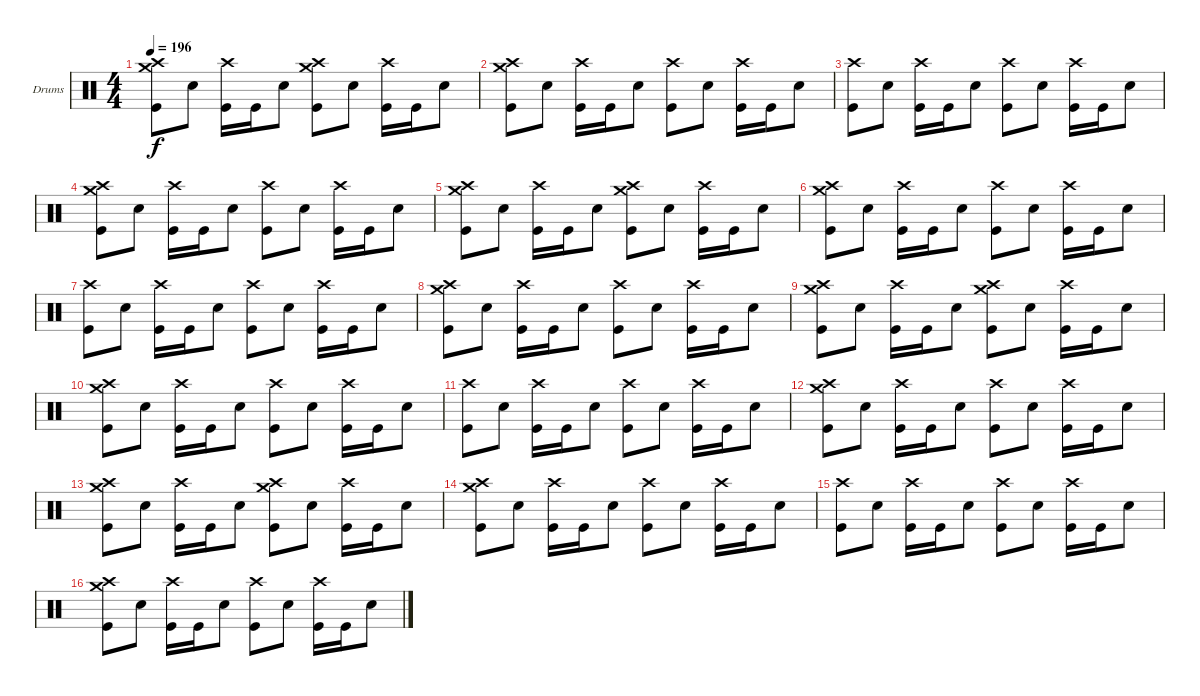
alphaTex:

\defaultSystemsLayout 4
\bracketExtendMode groupsimilarinstruments
\firstSystemTrackNameOrientation horizontal
\otherSystemsTrackNameOrientation horizontal
\track ("Lars Ulrich (Drum)" "Drums") {instrument percussion}
\staff {score}
\articulation defaults
\ts (4 4)
\tempo 196
\clef neutral
\scale
0.333333
\ks c
("Crash high (hit)" "Crash medium (hit)" "Kick (hit)").8{dy f} "Snare (hit) 2".8 ("Crash high (hit)" "Kick (hit)").16 "Kick (hit)".16 "Snare (hit) 2".8 ("Crash high (hit)" "Crash medium (hit)" "Kick (hit)").8 "Snare (hit) 2".8 ("Crash high (hit)" "Kick (hit)").16 "Kick (hit)".16 "Snare (hit) 2".8 |
\scale
0.333333 ("Crash high (hit)" "Crash medium (hit)" "Kick (hit)").8 "Snare (hit) 2".8 ("Crash high (hit)" "Kick (hit)").16 "Kick (hit)".16 "Snare (hit) 2".8 ("Crash high (hit)" "Kick (hit)").8 "Snare (hit) 2".8 ("Crash high (hit)" "Kick (hit)").16 "Kick (hit)".16 "Snare (hit) 2".8 |
\scale
0.333333 ("Crash high (hit)" "Kick (hit)").8 "Snare (hit) 2".8 ("Crash high (hit)" "Kick (hit)").16 "Kick (hit)".16 "Snare (hit) 2".8 ("Crash high (hit)" "Kick (hit)").8 "Snare (hit) 2".8 ("Crash high (hit)" "Kick (hit)").16 "Kick (hit)".16 "Snare (hit) 2".8 |
\scale
0.333333 ("Crash high (hit)" "Crash medium (hit)" "Kick (hit)").8 "Snare (hit) 2".8 ("Crash high (hit)" "Kick (hit)").16 "Kick (hit)".16 "Snare (hit) 2".8 ("Crash high (hit)" "Kick (hit)").8 "Snare (hit) 2".8 ("Crash high (hit)" "Kick (hit)").16 "Kick (hit)".16 "Snare (hit) 2".8 |
\scale
0.333333 ("Crash high (hit)" "Crash medium (hit)" "Kick (hit)").8 "Snare (hit) 2".8 ("Crash high (hit)" "Kick (hit)").16 "Kick (hit)".16 "Snare (hit) 2".8 ("Crash high (hit)" "Crash medium (hit)" "Kick (hit)").8 "Snare (hit) 2".8 ("Crash high (hit)" "Kick (hit)").16 "Kick (hit)".16 "Snare (hit) 2".8 |
\scale
0.333333 ("Crash high (hit)" "Crash medium (hit)" "Kick (hit)").8 "Snare (hit) 2".8 ("Crash high (hit)" "Kick (hit)").16 "Kick (hit)".16 "Snare (hit) 2".8 ("Crash high (hit)" "Kick (hit)").8 "Snare (hit) 2".8 ("Crash high (hit)" "Kick (hit)").16 "Kick (hit)".16 "Snare (hit) 2".8 |
\scale
0.333333 ("Crash high (hit)" "Kick (hit)").8 "Snare (hit) 2".8 ("Crash high (hit)" "Kick (hit)").16 "Kick (hit)".16 "Snare (hit) 2".8 ("Crash high (hit)" "Kick (hit)").8 "Snare (hit) 2".8 ("Crash high (hit)" "Kick (hit)").16 "Kick (hit)".16 "Snare (hit) 2".8 |
\scale
0.333333 ("Crash high (hit)" "Crash medium (hit)" "Kick (hit)").8 "Snare (hit) 2".8 ("Crash high (hit)" "Kick (hit)").16 "Kick (hit)".16 "Snare (hit) 2".8 ("Crash high (hit)" "Kick (hit)").8 "Snare (hit) 2".8 ("Crash high (hit)" "Kick (hit)").16 "Kick (hit)".16 "Snare (hit) 2".8 |
\scale
0.333333 ("Crash high (hit)" "Crash medium (hit)" "Kick (hit)").8 "Snare (hit) 2".8 ("Crash high (hit)" "Kick (hit)").16 "Kick (hit)".16 "Snare (hit) 2".8 ("Crash high (hit)" "Crash medium (hit)" "Kick (hit)").8 "Snare (hit) 2".8 ("Crash high (hit)" "Kick (hit)").16 "Kick (hit)".16 "Snare (hit) 2".8 |
\scale
0.333333 ("Crash high (hit)" "Crash medium (hit)" "Kick (hit)").8 "Snare (hit) 2".8 ("Crash high (hit)" "Kick (hit)").16 "Kick (hit)".16 "Snare (hit) 2".8 ("Crash high (hit)" "Kick (hit)").8 "Snare (hit) 2".8 ("Crash high (hit)" "Kick (hit)").16 "Kick (hit)".16 "Snare (hit) 2".8 |
\scale
0.333333 ("Crash high (hit)" "Kick (hit)").8 "Snare (hit) 2".8 ("Crash high (hit)" "Kick (hit)").16 "Kick (hit)".16 "Snare (hit) 2".8 ("Crash high (hit)" "Kick (hit)").8 "Snare (hit) 2".8 ("Crash high (hit)" "Kick (hit)").16 "Kick (hit)".16 "Snare (hit) 2".8 |
\scale
0.333333 ("Crash high (hit)" "Crash medium (hit)" "Kick (hit)").8 "Snare (hit) 2".8 ("Crash high (hit)" "Kick (hit)").16 "Kick (hit)".16 "Snare (hit) 2".8 ("Crash high (hit)" "Kick (hit)").8 "Snare (hit) 2".8 ("Crash high (hit)" "Kick (hit)").16 "Kick (hit)".16 "Snare (hit) 2".8 |
\scale
0.333333 ("Crash high (hit)" "Crash medium (hit)" "Kick (hit)").8 "Snare (hit) 2".8 ("Crash high (hit)" "Kick (hit)").16 "Kick (hit)".16 "Snare (hit) 2".8 ("Crash high (hit)" "Crash medium (hit)" "Kick (hit)").8 "Snare (hit) 2".8 ("Crash high (hit)" "Kick (hit)").16 "Kick (hit)".16 "Snare (hit) 2".8 |
\scale
0.333333 ("Crash high (hit)" "Crash medium (hit)" "Kick (hit)").8 "Snare (hit) 2".8 ("Crash high (hit)" "Kick (hit)").16 "Kick (hit)".16 "Snare (hit) 2".8 ("Crash high (hit)" "Kick (hit)").8 "Snare (hit) 2".8 ("Crash high (hit)" "Kick (hit)").16 "Kick (hit)".16 "Snare (hit) 2".8 |
\scale
0.333333 ("Crash high (hit)" "Kick (hit)").8 "Snare (hit) 2".8 ("Crash high (hit)" "Kick (hit)").16 "Kick (hit)".16 "Snare (hit) 2".8 ("Crash high (hit)" "Kick (hit)").8 "Snare (hit) 2".8 ("Crash high (hit)" "Kick (hit)").16 "Kick (hit)".16 "Snare (hit) 2".8 |
\scale
0.333333 ("Crash high (hit)" "Crash medium (hit)" "Kick (hit)").8 "Snare (hit) 2".8 ("Crash high (hit)" "Kick (hit)").16 "Kick (hit)".16 "Snare (hit) 2".8 ("Crash high (hit)" "Kick (hit)").8 "Snare (hit) 2".8 ("Crash high (hit)" "Kick (hit)").16 "Kick (hit)".16 "Snare (hit) 2".8
